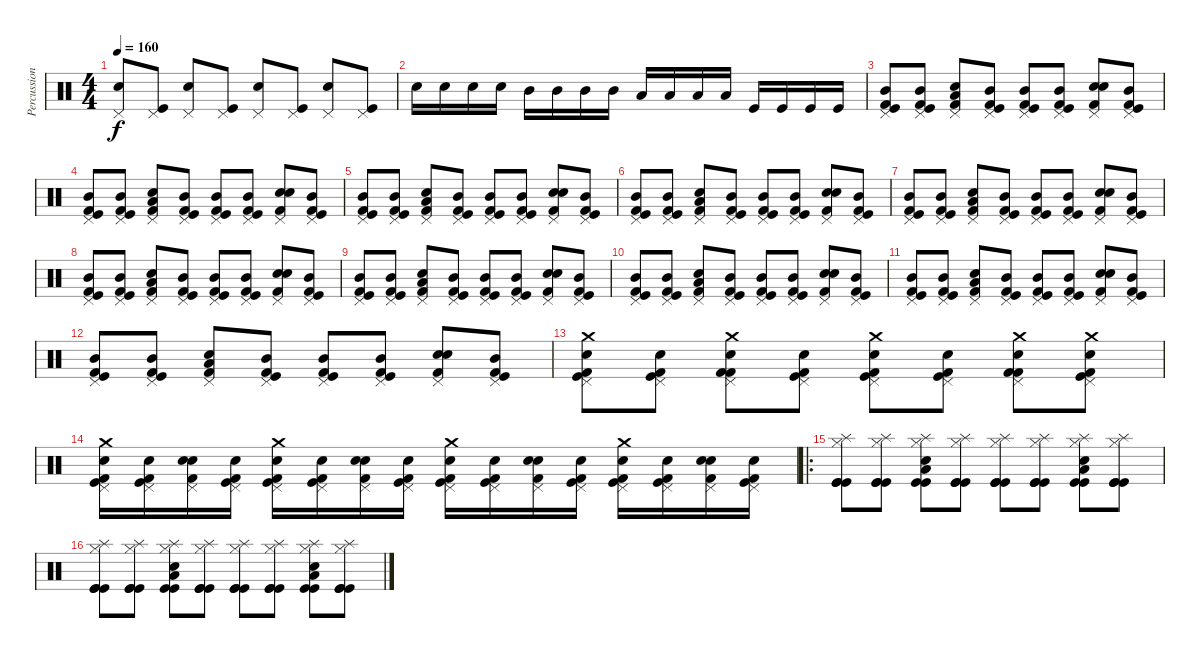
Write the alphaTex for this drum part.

\track ("Percussion" "Percussion") {instrument percussion}
\staff {score}
\articulation defaults
\ts (4 4)
\tempo 160
\clef neutral
\ks c
("Pedal Hi-Hat (hit)" "Electric Snare (hit)").8{dy f} ("Pedal Hi-Hat (hit)" "Kick (hit)").8 ("Pedal Hi-Hat (hit)" "Electric Snare (hit)").8 ("Pedal Hi-Hat (hit)" "Kick (hit)").8 ("Pedal Hi-Hat (hit)" "Electric Snare (hit)").8 ("Pedal Hi-Hat (hit)" "Kick (hit)").8 ("Pedal Hi-Hat (hit)" "Electric Snare (hit)").8 ("Pedal Hi-Hat (hit)" "Kick (hit)").8 |
"Electric Snare (hit)".16 "Electric Snare (hit)".16 "Electric Snare (hit)".16 "Electric Snare (hit)".16 "Mid Tom (hit)".16 "Mid Tom (hit)".16 "Mid Tom (hit)".16 "Mid Tom (hit)".16 "Low Tom (hit)".16 "Low Tom (hit)".16 "Low Tom (hit)".16 "Low Tom (hit)".16 "Kick (hit)".16 "Kick (hit)".16 "Kick (hit)".16 "Kick (hit)".16 |
("Pedal Hi-Hat (hit)" "Mid Tom (hit)" "Kick (hit) 2" "Kick (hit)").8 ("Pedal Hi-Hat (hit)" "Mid Tom (hit)" "Kick (hit) 2" "Kick (hit)").8 ("Pedal Hi-Hat (hit)" "Low Tom (hit)" "Electric Snare (hit)" "Kick (hit) 2").8 ("Pedal Hi-Hat (hit)" "Mid Tom (hit)" "Kick (hit) 2" "Kick (hit)").8 ("Pedal Hi-Hat (hit)" "Mid Tom (hit)" "Kick (hit) 2" "Kick (hit)").8 ("Pedal Hi-Hat (hit)" "Mid Tom (hit)" "Kick (hit) 2" "Kick (hit)").8 ("Pedal Hi-Hat (hit)" "Electric Snare (hit)" "Electric Snare (hit)" "Kick (hit) 2").8 ("Pedal Hi-Hat (hit)" "Mid Tom (hit)" "Kick (hit) 2" "Kick (hit)").8 |
("Pedal Hi-Hat (hit)" "Mid Tom (hit)" "Kick (hit) 2" "Kick (hit)").8 ("Pedal Hi-Hat (hit)" "Mid Tom (hit)" "Kick (hit) 2" "Kick (hit)").8 ("Pedal Hi-Hat (hit)" "Low Tom (hit)" "Electric Snare (hit)" "Kick (hit) 2").8 ("Pedal Hi-Hat (hit)" "Mid Tom (hit)" "Kick (hit) 2" "Kick (hit)").8 ("Pedal Hi-Hat (hit)" "Mid Tom (hit)" "Kick (hit) 2" "Kick (hit)").8 ("Pedal Hi-Hat (hit)" "Mid Tom (hit)" "Kick (hit) 2" "Kick (hit)").8 ("Pedal Hi-Hat (hit)" "Electric Snare (hit)" "Electric Snare (hit)" "Kick (hit) 2").8 ("Pedal Hi-Hat (hit)" "Mid Tom (hit)" "Kick (hit) 2" "Kick (hit)").8 |
("Pedal Hi-Hat (hit)" "Mid Tom (hit)" "Kick (hit) 2" "Kick (hit)").8 ("Pedal Hi-Hat (hit)" "Mid Tom (hit)" "Kick (hit) 2" "Kick (hit)").8 ("Pedal Hi-Hat (hit)" "Low Tom (hit)" "Electric Snare (hit)" "Kick (hit) 2").8 ("Pedal Hi-Hat (hit)" "Mid Tom (hit)" "Kick (hit) 2" "Kick (hit)").8 ("Pedal Hi-Hat (hit)" "Mid Tom (hit)" "Kick (hit) 2" "Kick (hit)").8 ("Pedal Hi-Hat (hit)" "Mid Tom (hit)" "Kick (hit) 2" "Kick (hit)").8 ("Pedal Hi-Hat (hit)" "Electric Snare (hit)" "Electric Snare (hit)" "Kick (hit) 2").8 ("Pedal Hi-Hat (hit)" "Mid Tom (hit)" "Kick (hit) 2" "Kick (hit)").8 |
("Pedal Hi-Hat (hit)" "Mid Tom (hit)" "Kick (hit) 2" "Kick (hit)").8 ("Pedal Hi-Hat (hit)" "Mid Tom (hit)" "Kick (hit) 2" "Kick (hit)").8 ("Pedal Hi-Hat (hit)" "Low Tom (hit)" "Electric Snare (hit)" "Kick (hit) 2").8 ("Pedal Hi-Hat (hit)" "Mid Tom (hit)" "Kick (hit) 2" "Kick (hit)").8 ("Pedal Hi-Hat (hit)" "Mid Tom (hit)" "Kick (hit) 2" "Kick (hit)").8 ("Pedal Hi-Hat (hit)" "Mid Tom (hit)" "Kick (hit) 2" "Kick (hit)").8 ("Pedal Hi-Hat (hit)" "Electric Snare (hit)" "Electric Snare (hit)" "Kick (hit) 2").8 ("Pedal Hi-Hat (hit)" "Mid Tom (hit)" "Kick (hit) 2" "Kick (hit)").8 |
("Pedal Hi-Hat (hit)" "Mid Tom (hit)" "Kick (hit) 2" "Kick (hit)").8 ("Pedal Hi-Hat (hit)" "Mid Tom (hit)" "Kick (hit) 2" "Kick (hit)").8 ("Pedal Hi-Hat (hit)" "Low Tom (hit)" "Electric Snare (hit)" "Kick (hit) 2").8 ("Pedal Hi-Hat (hit)" "Mid Tom (hit)" "Kick (hit) 2" "Kick (hit)").8 ("Pedal Hi-Hat (hit)" "Mid Tom (hit)" "Kick (hit) 2" "Kick (hit)").8 ("Pedal Hi-Hat (hit)" "Mid Tom (hit)" "Kick (hit) 2" "Kick (hit)").8 ("Pedal Hi-Hat (hit)" "Electric Snare (hit)" "Electric Snare (hit)" "Kick (hit) 2").8 ("Pedal Hi-Hat (hit)" "Mid Tom (hit)" "Kick (hit) 2" "Kick (hit)").8 |
("Pedal Hi-Hat (hit)" "Mid Tom (hit)" "Kick (hit) 2" "Kick (hit)").8 ("Pedal Hi-Hat (hit)" "Mid Tom (hit)" "Kick (hit) 2" "Kick (hit)").8 ("Pedal Hi-Hat (hit)" "Low Tom (hit)" "Electric Snare (hit)" "Kick (hit) 2").8 ("Pedal Hi-Hat (hit)" "Mid Tom (hit)" "Kick (hit) 2" "Kick (hit)").8 ("Pedal Hi-Hat (hit)" "Mid Tom (hit)" "Kick (hit) 2" "Kick (hit)").8 ("Pedal Hi-Hat (hit)" "Mid Tom (hit)" "Kick (hit) 2" "Kick (hit)").8 ("Pedal Hi-Hat (hit)" "Electric Snare (hit)" "Electric Snare (hit)" "Kick (hit) 2").8 ("Pedal Hi-Hat (hit)" "Mid Tom (hit)" "Kick (hit) 2" "Kick (hit)").8 |
("Pedal Hi-Hat (hit)" "Mid Tom (hit)" "Kick (hit) 2" "Kick (hit)").8 ("Pedal Hi-Hat (hit)" "Mid Tom (hit)" "Kick (hit) 2" "Kick (hit)").8 ("Pedal Hi-Hat (hit)" "Low Tom (hit)" "Electric Snare (hit)" "Kick (hit) 2").8 ("Pedal Hi-Hat (hit)" "Mid Tom (hit)" "Kick (hit) 2" "Kick (hit)").8 ("Pedal Hi-Hat (hit)" "Mid Tom (hit)" "Kick (hit) 2" "Kick (hit)").8 ("Pedal Hi-Hat (hit)" "Mid Tom (hit)" "Kick (hit) 2" "Kick (hit)").8 ("Pedal Hi-Hat (hit)" "Electric Snare (hit)" "Electric Snare (hit)" "Kick (hit) 2").8 ("Pedal Hi-Hat (hit)" "Mid Tom (hit)" "Kick (hit) 2" "Kick (hit)").8 |
("Pedal Hi-Hat (hit)" "Mid Tom (hit)" "Kick (hit) 2" "Kick (hit)").8 ("Pedal Hi-Hat (hit)" "Mid Tom (hit)" "Kick (hit) 2" "Kick (hit)").8 ("Pedal Hi-Hat (hit)" "Low Tom (hit)" "Electric Snare (hit)" "Kick (hit) 2").8 ("Pedal Hi-Hat (hit)" "Mid Tom (hit)" "Kick (hit) 2" "Kick (hit)").8 ("Pedal Hi-Hat (hit)" "Mid Tom (hit)" "Kick (hit) 2" "Kick (hit)").8 ("Pedal Hi-Hat (hit)" "Mid Tom (hit)" "Kick (hit) 2" "Kick (hit)").8 ("Pedal Hi-Hat (hit)" "Electric Snare (hit)" "Electric Snare (hit)" "Kick (hit) 2").8 ("Pedal Hi-Hat (hit)" "Mid Tom (hit)" "Kick (hit) 2" "Kick (hit)").8 |
("Pedal Hi-Hat (hit)" "Mid Tom (hit)" "Kick (hit) 2" "Kick (hit)").8 ("Pedal Hi-Hat (hit)" "Mid Tom (hit)" "Kick (hit) 2" "Kick (hit)").8 ("Pedal Hi-Hat (hit)" "Low Tom (hit)" "Electric Snare (hit)" "Kick (hit) 2").8 ("Pedal Hi-Hat (hit)" "Mid Tom (hit)" "Kick (hit) 2" "Kick (hit)").8 ("Pedal Hi-Hat (hit)" "Mid Tom (hit)" "Kick (hit) 2" "Kick (hit)").8 ("Pedal Hi-Hat (hit)" "Mid Tom (hit)" "Kick (hit) 2" "Kick (hit)").8 ("Pedal Hi-Hat (hit)" "Electric Snare (hit)" "Electric Snare (hit)" "Kick (hit) 2").8 ("Pedal Hi-Hat (hit)" "Mid Tom (hit)" "Kick (hit) 2" "Kick (hit)").8 |
("Pedal Hi-Hat (hit)" "Mid Tom (hit)" "Kick (hit) 2" "Kick (hit)").8 ("Pedal Hi-Hat (hit)" "Mid Tom (hit)" "Kick (hit) 2" "Kick (hit)").8 ("Pedal Hi-Hat (hit)" "Low Tom (hit)" "Electric Snare (hit)" "Kick (hit) 2").8 ("Pedal Hi-Hat (hit)" "Mid Tom (hit)" "Kick (hit) 2" "Kick (hit)").8 ("Pedal Hi-Hat (hit)" "Mid Tom (hit)" "Kick (hit) 2" "Kick (hit)").8 ("Pedal Hi-Hat (hit)" "Mid Tom (hit)" "Kick (hit) 2" "Kick (hit)").8 ("Pedal Hi-Hat (hit)" "Electric Snare (hit)" "Electric Snare (hit)" "Kick (hit) 2").8 ("Pedal Hi-Hat (hit)" "Mid Tom (hit)" "Kick (hit) 2" "Kick (hit)").8 |
("Pedal Hi-Hat (hit)" "Crash medium (hit)" "Electric Snare (hit)" "Kick (hit) 2" "Kick (hit)").8 ("Pedal Hi-Hat (hit)" "Electric Snare (hit)" "Kick (hit) 2" "Kick (hit)").8 ("Pedal Hi-Hat (hit)" "Crash medium (hit)" "Electric Snare (hit)" "Kick (hit) 2" "Kick (hit) 2").8 ("Pedal Hi-Hat (hit)" "Electric Snare (hit)" "Kick (hit) 2" "Kick (hit)").8 ("Pedal Hi-Hat (hit)" "Crash medium (hit)" "Electric Snare (hit)" "Kick (hit) 2" "Kick (hit)").8 ("Pedal Hi-Hat (hit)" "Electric Snare (hit)" "Kick (hit) 2" "Kick (hit)").8 ("Pedal Hi-Hat (hit)" "Crash medium (hit)" "Electric Snare (hit)" "Kick (hit) 2" "Kick (hit) 2").8 ("Pedal Hi-Hat (hit)" "Crash medium (hit)" "Electric Snare (hit)" "Kick (hit) 2" "Kick (hit)").8 |
("Pedal Hi-Hat (hit)" "Crash medium (hit)" "Electric Snare (hit)" "Kick (hit) 2" "Kick (hit)").16 ("Pedal Hi-Hat (hit)" "Electric Snare (hit)" "Kick (hit) 2" "Kick (hit)").16 ("Pedal Hi-Hat (hit)" "Electric Snare (hit)" "Electric Snare (hit)" "Kick (hit) 2").16 ("Pedal Hi-Hat (hit)" "Electric Snare (hit)" "Kick (hit) 2" "Kick (hit)").16 ("Pedal Hi-Hat (hit)" "Crash medium (hit)" "Electric Snare (hit)" "Kick (hit) 2" "Kick (hit)").16 ("Pedal Hi-Hat (hit)" "Electric Snare (hit)" "Kick (hit) 2" "Kick (hit)").16 ("Pedal Hi-Hat (hit)" "Electric Snare (hit)" "Electric Snare (hit)" "Kick (hit) 2").16 ("Pedal Hi-Hat (hit)" "Electric Snare (hit)" "Kick (hit) 2" "Kick (hit)").16 ("Pedal Hi-Hat (hit)" "Crash medium (hit)" "Electric Snare (hit)" "Kick (hit) 2" "Kick (hit)").16 ("Pedal Hi-Hat (hit)" "Electric Snare (hit)" "Kick (hit) 2" "Kick (hit)").16 ("Pedal Hi-Hat (hit)" "Electric Snare (hit)" "Electric Snare (hit)" "Kick (hit) 2").16 ("Pedal Hi-Hat (hit)" "Electric Snare (hit)" "Kick (hit) 2" "Kick (hit)").16 ("Pedal Hi-Hat (hit)" "Crash medium (hit)" "Electric Snare (hit)" "Kick (hit) 2" "Kick (hit)").16 ("Pedal Hi-Hat (hit)" "Electric Snare (hit)" "Kick (hit) 2" "Kick (hit)").16 ("Pedal Hi-Hat (hit)" "Electric Snare (hit)" "Electric Snare (hit)" "Kick (hit) 2").16 ("Pedal Hi-Hat (hit)" "Electric Snare (hit)" "Kick (hit) 2" "Kick (hit)").16 |
\ro
("Hi-Hat (closed)" "Splash (hit)" "Kick (hit)" "Kick (hit)" "Kick (hit)").8 ("Hi-Hat (closed)" "Splash (hit)" "Kick (hit)" "Kick (hit)" "Kick (hit)").8 ("Hi-Hat (closed)" "Splash (hit)" "Low Tom (hit)" "Electric Snare (hit)" "Kick (hit)" "Kick (hit)").8 ("Hi-Hat (closed)" "Splash (hit)" "Kick (hit)" "Kick (hit)" "Kick (hit)").8 ("Hi-Hat (closed)" "Splash (hit)" "Kick (hit)" "Kick (hit)" "Kick (hit)").8 ("Hi-Hat (closed)" "Splash (hit)" "Kick (hit)" "Kick (hit)" "Kick (hit)").8 ("Hi-Hat (closed)" "Splash (hit)" "Low Tom (hit)" "Electric Snare (hit)" "Kick (hit)" "Kick (hit)").8 ("Hi-Hat (closed)" "Splash (hit)" "Kick (hit)" "Kick (hit)" "Kick (hit)").8 |
("Hi-Hat (closed)" "Splash (hit)" "Kick (hit)" "Kick (hit)" "Kick (hit)").8 ("Hi-Hat (closed)" "Splash (hit)" "Kick (hit)" "Kick (hit)" "Kick (hit)").8 ("Hi-Hat (closed)" "Splash (hit)" "Low Tom (hit)" "Electric Snare (hit)" "Kick (hit)" "Kick (hit)").8 ("Hi-Hat (closed)" "Splash (hit)" "Kick (hit)" "Kick (hit)" "Kick (hit)").8 ("Hi-Hat (closed)" "Splash (hit)" "Kick (hit)" "Kick (hit)" "Kick (hit)").8 ("Hi-Hat (closed)" "Splash (hit)" "Kick (hit)" "Kick (hit)" "Kick (hit)").8 ("Hi-Hat (closed)" "Splash (hit)" "Low Tom (hit)" "Electric Snare (hit)" "Kick (hit)" "Kick (hit)").8 ("Hi-Hat (closed)" "Splash (hit)" "Kick (hit)" "Kick (hit)" "Kick (hit)").8
